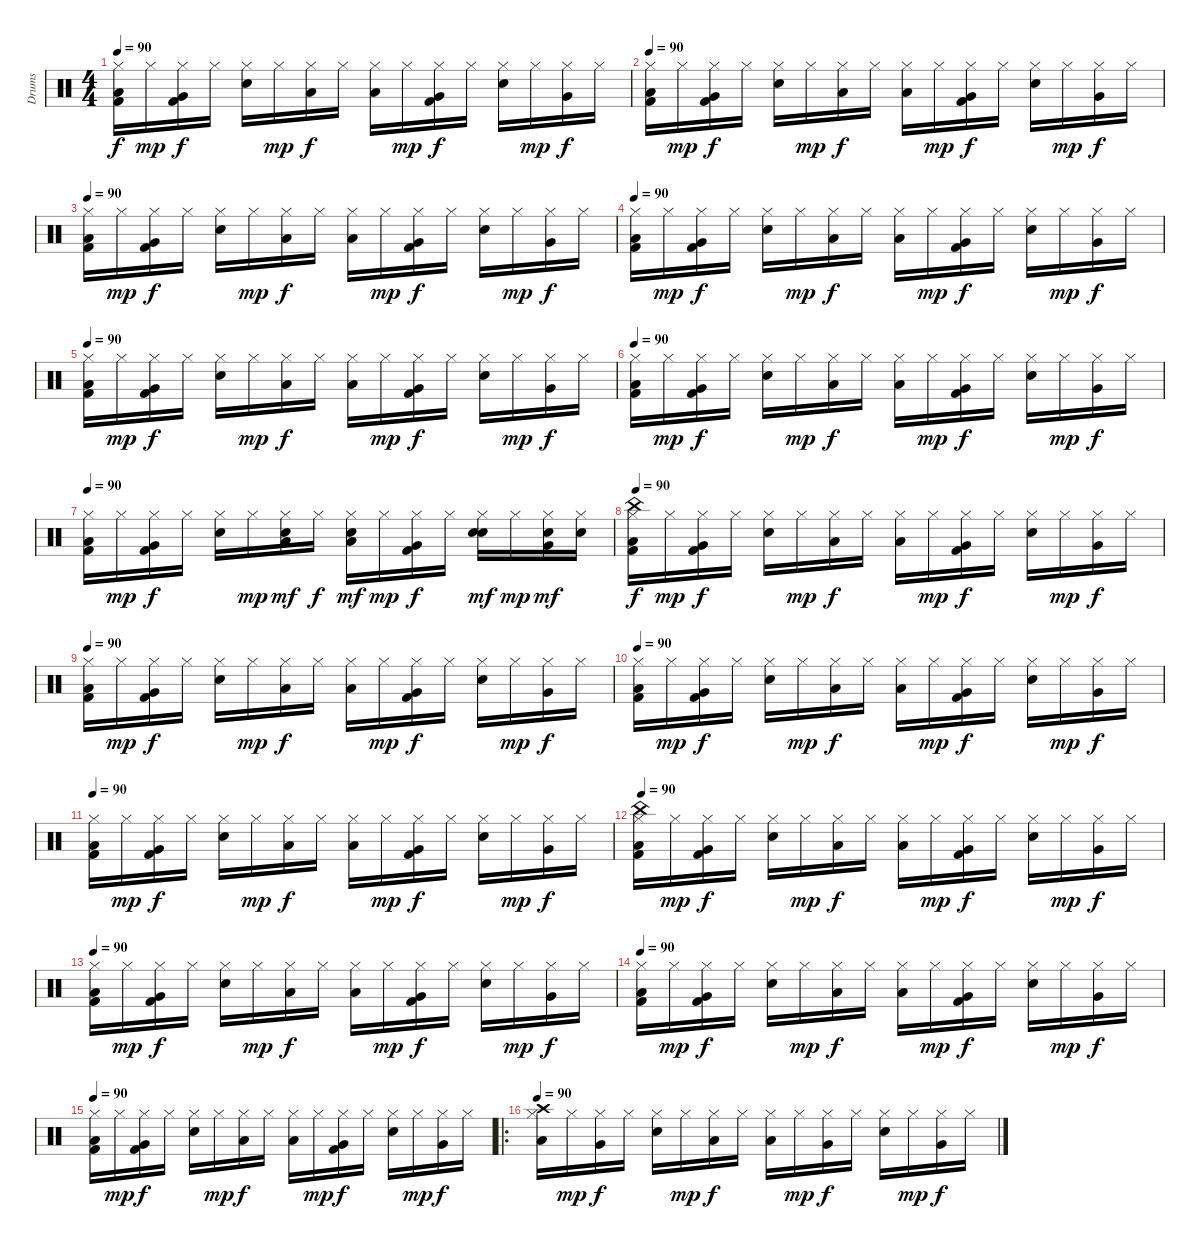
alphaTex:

\track ("Drums" "Drums") {instrument percussion}
\staff {score}
\articulation defaults
\ts (4 4)
\tempo 90
\clef neutral
\ks c
("Low Floor Tom (hit)" "Kick (hit) 2" "Hi-Hat (closed)").16{dy f} "Hi-Hat (closed)".16{dy mp} ("Very Low Tom (hit)" "Kick (hit) 2" "Hi-Hat (closed)").16{dy f} "Hi-Hat (closed)".16 ("Snare (hit) 2" "Hi-Hat (closed)").16 "Hi-Hat (closed)".16{dy mp} ("Low Tom (hit)" "Hi-Hat (closed)").16{dy f} "Hi-Hat (closed)".16 ("Low Tom (hit)" "Hi-Hat (closed)").16 "Hi-Hat (closed)".16{dy mp} ("Very Low Tom (hit)" "Kick (hit) 2" "Hi-Hat (closed)").16{dy f} "Hi-Hat (closed)".16 ("Snare (hit) 2" "Hi-Hat (closed)").16 "Hi-Hat (closed)".16{dy mp} ("Very Low Tom (hit)" "Hi-Hat (closed)").16{dy f} "Hi-Hat (closed)".16 |
\tempo 90
("Low Floor Tom (hit)" "Kick (hit) 2" "Hi-Hat (closed)").16 "Hi-Hat (closed)".16{dy mp} ("Very Low Tom (hit)" "Kick (hit) 2" "Hi-Hat (closed)").16{dy f} "Hi-Hat (closed)".16 ("Snare (hit) 2" "Hi-Hat (closed)").16 "Hi-Hat (closed)".16{dy mp} ("Low Tom (hit)" "Hi-Hat (closed)").16{dy f} "Hi-Hat (closed)".16 ("Low Tom (hit)" "Hi-Hat (closed)").16 "Hi-Hat (closed)".16{dy mp} ("Very Low Tom (hit)" "Kick (hit) 2" "Hi-Hat (closed)").16{dy f} "Hi-Hat (closed)".16 ("Snare (hit) 2" "Hi-Hat (closed)").16 "Hi-Hat (closed)".16{dy mp} ("Very Low Tom (hit)" "Hi-Hat (closed)").16{dy f} "Hi-Hat (closed)".16 |
\tempo 90
("Low Floor Tom (hit)" "Kick (hit) 2" "Hi-Hat (closed)").16 "Hi-Hat (closed)".16{dy mp} ("Very Low Tom (hit)" "Kick (hit) 2" "Hi-Hat (closed)").16{dy f} "Hi-Hat (closed)".16 ("Snare (hit) 2" "Hi-Hat (closed)").16 "Hi-Hat (closed)".16{dy mp} ("Low Tom (hit)" "Hi-Hat (closed)").16{dy f} "Hi-Hat (closed)".16 ("Low Tom (hit)" "Hi-Hat (closed)").16 "Hi-Hat (closed)".16{dy mp} ("Very Low Tom (hit)" "Kick (hit) 2" "Hi-Hat (closed)").16{dy f} "Hi-Hat (closed)".16 ("Snare (hit) 2" "Hi-Hat (closed)").16 "Hi-Hat (closed)".16{dy mp} ("Very Low Tom (hit)" "Hi-Hat (closed)").16{dy f} "Hi-Hat (closed)".16 |
\tempo 90
("Low Floor Tom (hit)" "Kick (hit) 2" "Hi-Hat (closed)").16 "Hi-Hat (closed)".16{dy mp} ("Very Low Tom (hit)" "Kick (hit) 2" "Hi-Hat (closed)").16{dy f} "Hi-Hat (closed)".16 ("Snare (hit) 2" "Hi-Hat (closed)").16 "Hi-Hat (closed)".16{dy mp} ("Low Tom (hit)" "Hi-Hat (closed)").16{dy f} "Hi-Hat (closed)".16 ("Low Tom (hit)" "Hi-Hat (closed)").16 "Hi-Hat (closed)".16{dy mp} ("Very Low Tom (hit)" "Kick (hit) 2" "Hi-Hat (closed)").16{dy f} "Hi-Hat (closed)".16 ("Snare (hit) 2" "Hi-Hat (closed)").16 "Hi-Hat (closed)".16{dy mp} ("Very Low Tom (hit)" "Hi-Hat (closed)").16{dy f} "Hi-Hat (closed)".16 |
\tempo 90
("Low Floor Tom (hit)" "Kick (hit) 2" "Hi-Hat (closed)").16 "Hi-Hat (closed)".16{dy mp} ("Very Low Tom (hit)" "Kick (hit) 2" "Hi-Hat (closed)").16{dy f} "Hi-Hat (closed)".16 ("Snare (hit) 2" "Hi-Hat (closed)").16 "Hi-Hat (closed)".16{dy mp} ("Low Tom (hit)" "Hi-Hat (closed)").16{dy f} "Hi-Hat (closed)".16 ("Low Tom (hit)" "Hi-Hat (closed)").16 "Hi-Hat (closed)".16{dy mp} ("Very Low Tom (hit)" "Kick (hit) 2" "Hi-Hat (closed)").16{dy f} "Hi-Hat (closed)".16 ("Snare (hit) 2" "Hi-Hat (closed)").16 "Hi-Hat (closed)".16{dy mp} ("Very Low Tom (hit)" "Hi-Hat (closed)").16{dy f} "Hi-Hat (closed)".16 |
\tempo 90
("Low Floor Tom (hit)" "Kick (hit) 2" "Hi-Hat (closed)").16 "Hi-Hat (closed)".16{dy mp} ("Very Low Tom (hit)" "Kick (hit) 2" "Hi-Hat (closed)").16{dy f} "Hi-Hat (closed)".16 ("Snare (hit) 2" "Hi-Hat (closed)").16 "Hi-Hat (closed)".16{dy mp} ("Low Tom (hit)" "Hi-Hat (closed)").16{dy f} "Hi-Hat (closed)".16 ("Low Tom (hit)" "Hi-Hat (closed)").16 "Hi-Hat (closed)".16{dy mp} ("Very Low Tom (hit)" "Kick (hit) 2" "Hi-Hat (closed)").16{dy f} "Hi-Hat (closed)".16 ("Snare (hit) 2" "Hi-Hat (closed)").16 "Hi-Hat (closed)".16{dy mp} ("Very Low Tom (hit)" "Hi-Hat (closed)").16{dy f} "Hi-Hat (closed)".16 |
\tempo 90
("Low Floor Tom (hit)" "Kick (hit) 2" "Hi-Hat (closed)").16 "Hi-Hat (closed)".16{dy mp} ("Very Low Tom (hit)" "Kick (hit) 2" "Hi-Hat (closed)").16{dy f} "Hi-Hat (closed)".16 ("Snare (hit) 2" "Hi-Hat (closed)").16 "Hi-Hat (closed)".16{dy mp} ("Low Tom (hit)" "Electric Snare (hit)" "Hi-Hat (closed)").16{dy mf} "Hi-Hat (closed)".16{dy f} ("Low Tom (hit)" "Electric Snare (hit)" "Hi-Hat (closed)").16{dy mf} "Hi-Hat (closed)".16{dy mp} ("Very Low Tom (hit)" "Kick (hit) 2" "Hi-Hat (closed)").16{dy f} "Hi-Hat (closed)".16 ("Snare (hit) 2" "Electric Snare (hit)" "Hi-Hat (closed)").16{dy mf} "Hi-Hat (closed)".16{dy mp} ("Very Low Tom (hit)" "Electric Snare (hit)" "Hi-Hat (closed)").16{dy mf} ("Electric Snare (hit)" "Hi-Hat (closed)").16 |
\tempo 90
("China (hit)" "Low Floor Tom (hit)" "Kick (hit) 2" "Hi-Hat (closed)").16{dy f} "Hi-Hat (closed)".16{dy mp} ("Very Low Tom (hit)" "Kick (hit) 2" "Hi-Hat (closed)").16{dy f} "Hi-Hat (closed)".16 ("Snare (hit) 2" "Hi-Hat (closed)").16 "Hi-Hat (closed)".16{dy mp} ("Low Tom (hit)" "Hi-Hat (closed)").16{dy f} "Hi-Hat (closed)".16 ("Low Tom (hit)" "Hi-Hat (closed)").16 "Hi-Hat (closed)".16{dy mp} ("Very Low Tom (hit)" "Kick (hit) 2" "Hi-Hat (closed)").16{dy f} "Hi-Hat (closed)".16 ("Snare (hit) 2" "Hi-Hat (closed)").16 "Hi-Hat (closed)".16{dy mp} ("Very Low Tom (hit)" "Hi-Hat (closed)").16{dy f} "Hi-Hat (closed)".16 |
\tempo 90
("Low Floor Tom (hit)" "Kick (hit) 2" "Hi-Hat (closed)").16 "Hi-Hat (closed)".16{dy mp} ("Very Low Tom (hit)" "Kick (hit) 2" "Hi-Hat (closed)").16{dy f} "Hi-Hat (closed)".16 ("Snare (hit) 2" "Hi-Hat (closed)").16 "Hi-Hat (closed)".16{dy mp} ("Low Tom (hit)" "Hi-Hat (closed)").16{dy f} "Hi-Hat (closed)".16 ("Low Tom (hit)" "Hi-Hat (closed)").16 "Hi-Hat (closed)".16{dy mp} ("Very Low Tom (hit)" "Kick (hit) 2" "Hi-Hat (closed)").16{dy f} "Hi-Hat (closed)".16 ("Snare (hit) 2" "Hi-Hat (closed)").16 "Hi-Hat (closed)".16{dy mp} ("Very Low Tom (hit)" "Hi-Hat (closed)").16{dy f} "Hi-Hat (closed)".16 |
\tempo 90
("Low Floor Tom (hit)" "Kick (hit) 2" "Hi-Hat (closed)").16 "Hi-Hat (closed)".16{dy mp} ("Very Low Tom (hit)" "Kick (hit) 2" "Hi-Hat (closed)").16{dy f} "Hi-Hat (closed)".16 ("Snare (hit) 2" "Hi-Hat (closed)").16 "Hi-Hat (closed)".16{dy mp} ("Low Tom (hit)" "Hi-Hat (closed)").16{dy f} "Hi-Hat (closed)".16 ("Low Tom (hit)" "Hi-Hat (closed)").16 "Hi-Hat (closed)".16{dy mp} ("Very Low Tom (hit)" "Kick (hit) 2" "Hi-Hat (closed)").16{dy f} "Hi-Hat (closed)".16 ("Snare (hit) 2" "Hi-Hat (closed)").16 "Hi-Hat (closed)".16{dy mp} ("Very Low Tom (hit)" "Hi-Hat (closed)").16{dy f} "Hi-Hat (closed)".16 |
\tempo 90
("Low Floor Tom (hit)" "Kick (hit) 2" "Hi-Hat (closed)").16 "Hi-Hat (closed)".16{dy mp} ("Very Low Tom (hit)" "Kick (hit) 2" "Hi-Hat (closed)").16{dy f} "Hi-Hat (closed)".16 ("Snare (hit) 2" "Hi-Hat (closed)").16 "Hi-Hat (closed)".16{dy mp} ("Low Tom (hit)" "Hi-Hat (closed)").16{dy f} "Hi-Hat (closed)".16 ("Low Tom (hit)" "Hi-Hat (closed)").16 "Hi-Hat (closed)".16{dy mp} ("Very Low Tom (hit)" "Kick (hit) 2" "Hi-Hat (closed)").16{dy f} "Hi-Hat (closed)".16 ("Snare (hit) 2" "Hi-Hat (closed)").16 "Hi-Hat (closed)".16{dy mp} ("Very Low Tom (hit)" "Hi-Hat (closed)").16{dy f} "Hi-Hat (closed)".16 |
\tempo 90
("China (hit)" "Low Floor Tom (hit)" "Kick (hit) 2" "Hi-Hat (closed)").16 "Hi-Hat (closed)".16{dy mp} ("Very Low Tom (hit)" "Kick (hit) 2" "Hi-Hat (closed)").16{dy f} "Hi-Hat (closed)".16 ("Snare (hit) 2" "Hi-Hat (closed)").16 "Hi-Hat (closed)".16{dy mp} ("Low Tom (hit)" "Hi-Hat (closed)").16{dy f} "Hi-Hat (closed)".16 ("Low Tom (hit)" "Hi-Hat (closed)").16 "Hi-Hat (closed)".16{dy mp} ("Very Low Tom (hit)" "Kick (hit) 2" "Hi-Hat (closed)").16{dy f} "Hi-Hat (closed)".16 ("Snare (hit) 2" "Hi-Hat (closed)").16 "Hi-Hat (closed)".16{dy mp} ("Very Low Tom (hit)" "Hi-Hat (closed)").16{dy f} "Hi-Hat (closed)".16 |
\tempo 90
("Low Floor Tom (hit)" "Kick (hit) 2" "Hi-Hat (closed)").16 "Hi-Hat (closed)".16{dy mp} ("Very Low Tom (hit)" "Kick (hit) 2" "Hi-Hat (closed)").16{dy f} "Hi-Hat (closed)".16 ("Snare (hit) 2" "Hi-Hat (closed)").16 "Hi-Hat (closed)".16{dy mp} ("Low Tom (hit)" "Hi-Hat (closed)").16{dy f} "Hi-Hat (closed)".16 ("Low Tom (hit)" "Hi-Hat (closed)").16 "Hi-Hat (closed)".16{dy mp} ("Very Low Tom (hit)" "Kick (hit) 2" "Hi-Hat (closed)").16{dy f} "Hi-Hat (closed)".16 ("Snare (hit) 2" "Hi-Hat (closed)").16 "Hi-Hat (closed)".16{dy mp} ("Very Low Tom (hit)" "Hi-Hat (closed)").16{dy f} "Hi-Hat (closed)".16 |
\tempo 90
("Low Floor Tom (hit)" "Kick (hit) 2" "Hi-Hat (closed)").16 "Hi-Hat (closed)".16{dy mp} ("Very Low Tom (hit)" "Kick (hit) 2" "Hi-Hat (closed)").16{dy f} "Hi-Hat (closed)".16 ("Snare (hit) 2" "Hi-Hat (closed)").16 "Hi-Hat (closed)".16{dy mp} ("Low Tom (hit)" "Hi-Hat (closed)").16{dy f} "Hi-Hat (closed)".16 ("Low Tom (hit)" "Hi-Hat (closed)").16 "Hi-Hat (closed)".16{dy mp} ("Very Low Tom (hit)" "Kick (hit) 2" "Hi-Hat (closed)").16{dy f} "Hi-Hat (closed)".16 ("Snare (hit) 2" "Hi-Hat (closed)").16 "Hi-Hat (closed)".16{dy mp} ("Very Low Tom (hit)" "Hi-Hat (closed)").16{dy f} "Hi-Hat (closed)".16 |
\tempo 90
("Low Floor Tom (hit)" "Kick (hit) 2" "Hi-Hat (closed)").16 "Hi-Hat (closed)".16{dy mp} ("Very Low Tom (hit)" "Kick (hit) 2" "Hi-Hat (closed)").16{dy f} "Hi-Hat (closed)".16 ("Snare (hit) 2" "Hi-Hat (closed)").16 "Hi-Hat (closed)".16{dy mp} ("Low Tom (hit)" "Hi-Hat (closed)").16{dy f} "Hi-Hat (closed)".16 ("Low Tom (hit)" "Hi-Hat (closed)").16 "Hi-Hat (closed)".16{dy mp} ("Very Low Tom (hit)" "Kick (hit) 2" "Hi-Hat (closed)").16{dy f} "Hi-Hat (closed)".16 ("Snare (hit) 2" "Hi-Hat (closed)").16 "Hi-Hat (closed)".16{dy mp} ("Very Low Tom (hit)" "Hi-Hat (closed)").16{dy f} "Hi-Hat (closed)".16 |
\ro
\tempo 90
("Low Floor Tom (hit)" "Crash high (hit)" "Hi-Hat (closed)").16 "Hi-Hat (closed)".16{dy mp} ("Very Low Tom (hit)" "Hi-Hat (closed)").16{dy f} "Hi-Hat (closed)".16 ("Snare (hit) 2" "Hi-Hat (closed)").16 "Hi-Hat (closed)".16{dy mp} ("Low Tom (hit)" "Hi-Hat (closed)").16{dy f} "Hi-Hat (closed)".16 ("Low Tom (hit)" "Hi-Hat (closed)").16 "Hi-Hat (closed)".16{dy mp} ("Very Low Tom (hit)" "Hi-Hat (closed)").16{dy f} "Hi-Hat (closed)".16 ("Snare (hit) 2" "Hi-Hat (closed)").16 "Hi-Hat (closed)".16{dy mp} ("Very Low Tom (hit)" "Hi-Hat (closed)").16{dy f} "Hi-Hat (closed)".16
